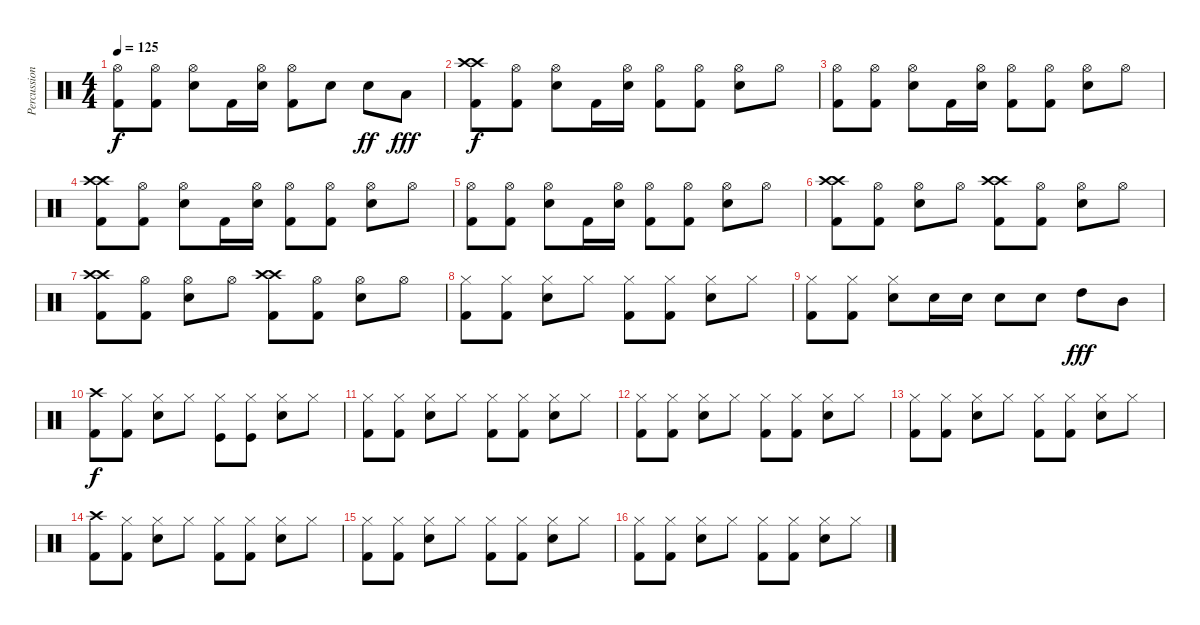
\track ("Percussion" "Percussion") {instrument percussion}
\staff {score}
\articulation defaults
\ts (4 4)
\tempo 125
\clef neutral
\ks c
("Hi-Hat (open)" "Kick (hit) 2").8{dy f} ("Hi-Hat (open)" "Kick (hit) 2").8 ("Hi-Hat (open)" "Electric Snare (hit)").8 "Kick (hit) 2".16 ("Hi-Hat (open)" "Electric Snare (hit)").16 ("Hi-Hat (open)" "Kick (hit) 2").8 "Electric Snare (hit)".8 "Electric Snare (hit)".8{dy ff} "Low Tom (hit)".8{dy fff} |
("Crash high (hit)" "Kick (hit) 2" "Crash high (hit)").8{dy f} ("Hi-Hat (open)" "Kick (hit) 2").8 ("Hi-Hat (open)" "Electric Snare (hit)").8 "Kick (hit) 2".16 ("Hi-Hat (open)" "Electric Snare (hit)").16 ("Hi-Hat (open)" "Kick (hit) 2").8 ("Hi-Hat (open)" "Kick (hit) 2").8 ("Hi-Hat (open)" "Electric Snare (hit)").8 "Hi-Hat (open)".8 |
("Hi-Hat (open)" "Kick (hit) 2").8 ("Hi-Hat (open)" "Kick (hit) 2").8 ("Hi-Hat (open)" "Electric Snare (hit)").8 "Kick (hit) 2".16 ("Hi-Hat (open)" "Electric Snare (hit)").16 ("Hi-Hat (open)" "Kick (hit) 2").8 ("Hi-Hat (open)" "Kick (hit) 2").8 ("Hi-Hat (open)" "Electric Snare (hit)").8 "Hi-Hat (open)".8 |
("Crash high (hit)" "Kick (hit) 2" "Crash high (hit)").8 ("Hi-Hat (open)" "Kick (hit) 2").8 ("Hi-Hat (open)" "Electric Snare (hit)").8 "Kick (hit) 2".16 ("Hi-Hat (open)" "Electric Snare (hit)").16 ("Hi-Hat (open)" "Kick (hit) 2").8 ("Hi-Hat (open)" "Kick (hit) 2").8 ("Hi-Hat (open)" "Electric Snare (hit)").8 "Hi-Hat (open)".8 |
("Hi-Hat (open)" "Kick (hit) 2").8 ("Hi-Hat (open)" "Kick (hit) 2").8 ("Hi-Hat (open)" "Electric Snare (hit)").8 "Kick (hit) 2".16 ("Hi-Hat (open)" "Electric Snare (hit)").16 ("Hi-Hat (open)" "Kick (hit) 2").8 ("Hi-Hat (open)" "Kick (hit) 2").8 ("Hi-Hat (open)" "Electric Snare (hit)").8 "Hi-Hat (open)".8 |
("Crash high (hit)" "Kick (hit) 2" "Crash high (hit)").8 ("Hi-Hat (open)" "Kick (hit) 2").8 ("Hi-Hat (open)" "Electric Snare (hit)").8 "Hi-Hat (open)".8 ("Crash high (hit)" "Kick (hit) 2" "Crash high (hit)").8 ("Hi-Hat (open)" "Kick (hit) 2").8 ("Hi-Hat (open)" "Electric Snare (hit)").8 "Hi-Hat (open)".8 |
("Crash high (hit)" "Kick (hit) 2" "Crash high (hit)").8 ("Hi-Hat (open)" "Kick (hit) 2").8 ("Hi-Hat (open)" "Electric Snare (hit)").8 "Hi-Hat (open)".8 ("Crash high (hit)" "Kick (hit) 2" "Crash high (hit)").8 ("Hi-Hat (open)" "Kick (hit) 2").8 ("Hi-Hat (open)" "Electric Snare (hit)").8 "Hi-Hat (open)".8 |
("Hi-Hat (closed)" "Kick (hit) 2").8 ("Hi-Hat (closed)" "Kick (hit) 2").8 ("Hi-Hat (closed)" "Electric Snare (hit)").8 "Hi-Hat (closed)".8 ("Hi-Hat (closed)" "Kick (hit) 2").8 ("Hi-Hat (closed)" "Kick (hit) 2").8 ("Hi-Hat (closed)" "Electric Snare (hit)").8 "Hi-Hat (closed)".8 |
("Hi-Hat (closed)" "Kick (hit) 2").8 ("Hi-Hat (closed)" "Kick (hit) 2").8 ("Hi-Hat (closed)" "Electric Snare (hit)").8 "Electric Snare (hit)".16 "Electric Snare (hit)".16 "Electric Snare (hit)".8 "Electric Snare (hit)".8 "High Tom (hit)".8{dy fff} "Mid Tom (hit)".8 |
("Crash high (hit)" "Kick (hit) 2").8{dy f} ("Hi-Hat (closed)" "Kick (hit) 2").8 ("Hi-Hat (closed)" "Electric Snare (hit)").8 "Hi-Hat (closed)".8 ("Hi-Hat (closed)" "Kick (hit)").8 ("Hi-Hat (closed)" "Kick (hit)").8 ("Hi-Hat (closed)" "Electric Snare (hit)").8 "Hi-Hat (closed)".8 |
("Hi-Hat (closed)" "Kick (hit) 2").8 ("Hi-Hat (closed)" "Kick (hit) 2").8 ("Hi-Hat (closed)" "Electric Snare (hit)").8 "Hi-Hat (closed)".8 ("Hi-Hat (closed)" "Kick (hit) 2").8 ("Hi-Hat (closed)" "Kick (hit) 2").8 ("Hi-Hat (closed)" "Electric Snare (hit)").8 "Hi-Hat (closed)".8 |
("Hi-Hat (closed)" "Kick (hit) 2").8 ("Hi-Hat (closed)" "Kick (hit) 2").8 ("Hi-Hat (closed)" "Electric Snare (hit)").8 "Hi-Hat (closed)".8 ("Hi-Hat (closed)" "Kick (hit) 2").8 ("Hi-Hat (closed)" "Kick (hit) 2").8 ("Hi-Hat (closed)" "Electric Snare (hit)").8 "Hi-Hat (closed)".8 |
("Hi-Hat (closed)" "Kick (hit) 2").8 ("Hi-Hat (closed)" "Kick (hit) 2").8 ("Hi-Hat (closed)" "Electric Snare (hit)").8 "Hi-Hat (closed)".8 ("Hi-Hat (closed)" "Kick (hit) 2").8 ("Hi-Hat (closed)" "Kick (hit) 2").8 ("Hi-Hat (closed)" "Electric Snare (hit)").8 "Hi-Hat (closed)".8 |
("Crash high (hit)" "Kick (hit) 2").8 ("Hi-Hat (closed)" "Kick (hit) 2").8 ("Hi-Hat (closed)" "Electric Snare (hit)").8 "Hi-Hat (closed)".8 ("Hi-Hat (closed)" "Kick (hit) 2").8 ("Hi-Hat (closed)" "Kick (hit) 2").8 ("Hi-Hat (closed)" "Electric Snare (hit)").8 "Hi-Hat (closed)".8 |
("Hi-Hat (closed)" "Kick (hit) 2").8 ("Hi-Hat (closed)" "Kick (hit) 2").8 ("Hi-Hat (closed)" "Electric Snare (hit)").8 "Hi-Hat (closed)".8 ("Hi-Hat (closed)" "Kick (hit) 2").8 ("Hi-Hat (closed)" "Kick (hit) 2").8 ("Hi-Hat (closed)" "Electric Snare (hit)").8 "Hi-Hat (closed)".8 |
("Hi-Hat (closed)" "Kick (hit) 2").8 ("Hi-Hat (closed)" "Kick (hit) 2").8 ("Hi-Hat (closed)" "Electric Snare (hit)").8 "Hi-Hat (closed)".8 ("Hi-Hat (closed)" "Kick (hit) 2").8 ("Hi-Hat (closed)" "Kick (hit) 2").8 ("Hi-Hat (closed)" "Electric Snare (hit)").8 "Hi-Hat (closed)".8
